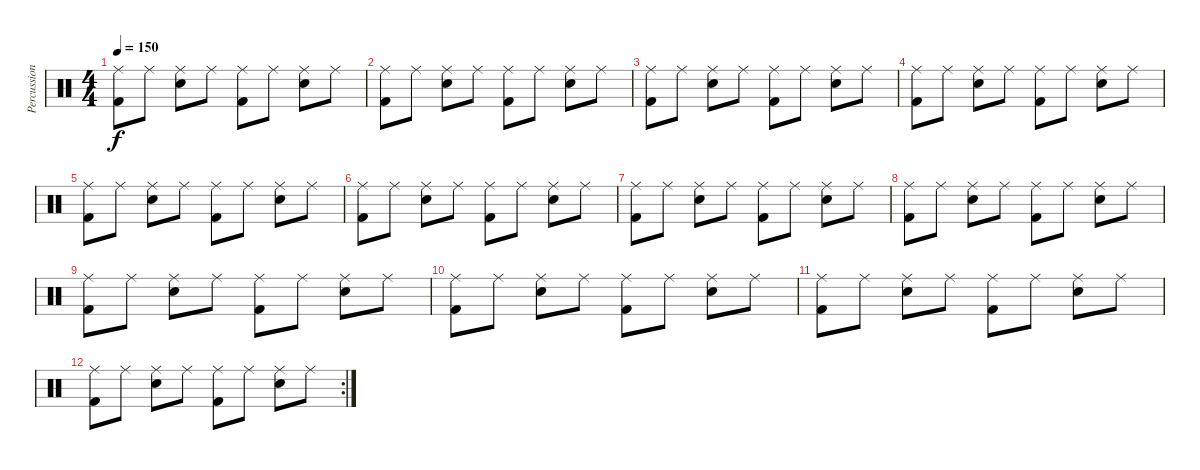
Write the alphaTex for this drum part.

\track ("Percussion" "Percussion") {instrument percussion}
\staff {score}
\articulation defaults
\ts (4 4)
\tempo 150
\clef neutral
\ks c
("Ride (middle)" "Kick (hit) 2").8{dy f} "Ride (middle)".8 ("Ride (middle)" "Electric Snare (hit)").8 "Ride (middle)".8 ("Ride (middle)" "Kick (hit) 2").8 "Ride (middle)".8 ("Ride (middle)" "Electric Snare (hit)").8 "Ride (middle)".8 |
("Ride (middle)" "Kick (hit) 2").8 "Ride (middle)".8 ("Ride (middle)" "Electric Snare (hit)").8 "Ride (middle)".8 ("Ride (middle)" "Kick (hit) 2").8 "Ride (middle)".8 ("Ride (middle)" "Electric Snare (hit)").8 "Ride (middle)".8 |
("Ride (middle)" "Kick (hit) 2").8 "Ride (middle)".8 ("Ride (middle)" "Electric Snare (hit)").8 "Ride (middle)".8 ("Ride (middle)" "Kick (hit) 2").8 "Ride (middle)".8 ("Ride (middle)" "Electric Snare (hit)").8 "Ride (middle)".8 |
("Ride (middle)" "Kick (hit) 2").8 "Ride (middle)".8 ("Ride (middle)" "Electric Snare (hit)").8 "Ride (middle)".8 ("Ride (middle)" "Kick (hit) 2").8 "Ride (middle)".8 ("Ride (middle)" "Electric Snare (hit)").8 "Ride (middle)".8 |
("Ride (middle)" "Kick (hit) 2").8 "Ride (middle)".8 ("Ride (middle)" "Electric Snare (hit)").8 "Ride (middle)".8 ("Ride (middle)" "Kick (hit) 2").8 "Ride (middle)".8 ("Ride (middle)" "Electric Snare (hit)").8 "Ride (middle)".8 |
("Ride (middle)" "Kick (hit) 2").8 "Ride (middle)".8 ("Ride (middle)" "Electric Snare (hit)").8 "Ride (middle)".8 ("Ride (middle)" "Kick (hit) 2").8 "Ride (middle)".8 ("Ride (middle)" "Electric Snare (hit)").8 "Ride (middle)".8 |
("Ride (middle)" "Kick (hit) 2").8 "Ride (middle)".8 ("Ride (middle)" "Electric Snare (hit)").8 "Ride (middle)".8 ("Ride (middle)" "Kick (hit) 2").8 "Ride (middle)".8 ("Ride (middle)" "Electric Snare (hit)").8 "Ride (middle)".8 |
("Ride (middle)" "Kick (hit) 2").8 "Ride (middle)".8 ("Ride (middle)" "Electric Snare (hit)").8 "Ride (middle)".8 ("Ride (middle)" "Kick (hit) 2").8 "Ride (middle)".8 ("Ride (middle)" "Electric Snare (hit)").8 "Ride (middle)".8 |
("Ride (middle)" "Kick (hit) 2").8 "Ride (middle)".8 ("Ride (middle)" "Electric Snare (hit)").8 "Ride (middle)".8 ("Ride (middle)" "Kick (hit) 2").8 "Ride (middle)".8 ("Ride (middle)" "Electric Snare (hit)").8 "Ride (middle)".8 |
("Ride (middle)" "Kick (hit) 2").8 "Ride (middle)".8 ("Ride (middle)" "Electric Snare (hit)").8 "Ride (middle)".8 ("Ride (middle)" "Kick (hit) 2").8 "Ride (middle)".8 ("Ride (middle)" "Electric Snare (hit)").8 "Ride (middle)".8 |
("Ride (middle)" "Kick (hit) 2").8 "Ride (middle)".8 ("Ride (middle)" "Electric Snare (hit)").8 "Ride (middle)".8 ("Ride (middle)" "Kick (hit) 2").8 "Ride (middle)".8 ("Ride (middle)" "Electric Snare (hit)").8 "Ride (middle)".8 |
\rc 2
("Ride (middle)" "Kick (hit) 2").8 "Ride (middle)".8 ("Ride (middle)" "Electric Snare (hit)").8 "Ride (middle)".8 ("Ride (middle)" "Kick (hit) 2").8 "Ride (middle)".8 ("Ride (middle)" "Electric Snare (hit)").8 "Ride (middle)".8
